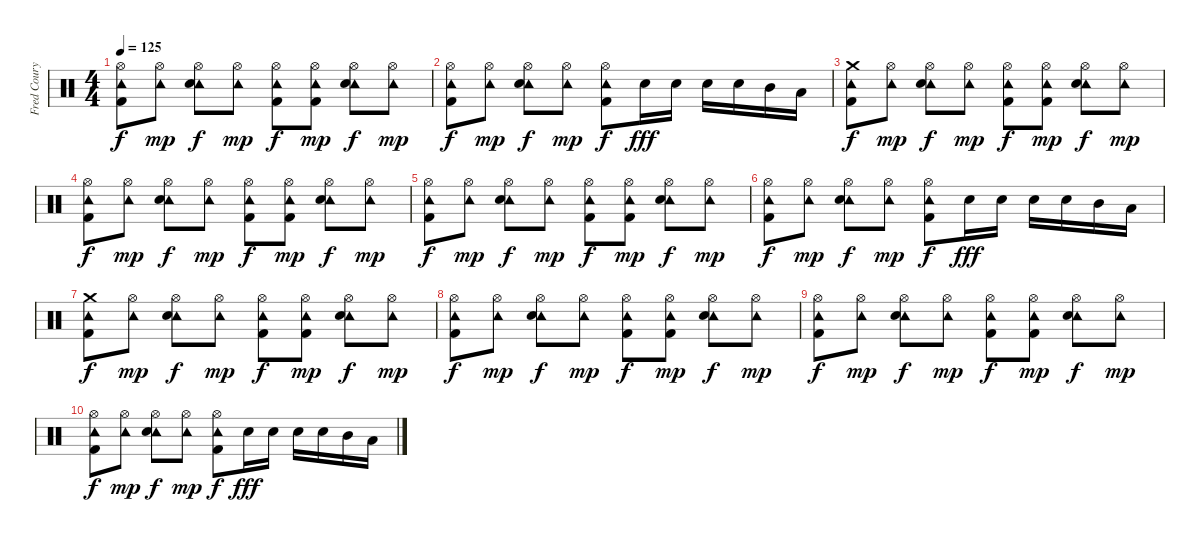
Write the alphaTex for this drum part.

\track ("Fred Coury - Drums" "Fred Coury") {instrument percussion}
\staff {score}
\articulation defaults
\ts (4 4)
\tempo 125
\clef neutral
\ks c
("Hi-Hat (open)" "Tambourine (hit)" "Kick (hit) 2").8{dy f} ("Hi-Hat (open)" "Tambourine (hit)").8{dy mp} ("Hi-Hat (open)" "Tambourine (hit)" "Snare (hit) 2").8{dy f} ("Hi-Hat (open)" "Tambourine (hit)").8{dy mp} ("Hi-Hat (open)" "Tambourine (hit)" "Kick (hit) 2").8{dy f} ("Hi-Hat (open)" "Tambourine (hit)" "Kick (hit) 2").8{dy mp} ("Hi-Hat (open)" "Tambourine (hit)" "Snare (hit) 2").8{dy f} ("Hi-Hat (open)" "Tambourine (hit)").8{dy mp} |
("Hi-Hat (open)" "Tambourine (hit)" "Kick (hit) 2").8{dy f} ("Hi-Hat (open)" "Tambourine (hit)").8{dy mp} ("Hi-Hat (open)" "Tambourine (hit)" "Snare (hit) 2").8{dy f} ("Hi-Hat (open)" "Tambourine (hit)").8{dy mp} ("Hi-Hat (open)" "Tambourine (hit)" "Kick (hit) 2").8{dy f} "Snare (hit) 2".16{dy fff} "Snare (hit) 2".16 "Snare (hit) 2".16 "Snare (hit) 2".16 "Mid Tom (hit)".16 "Low Tom (hit)".16 |
("Crash medium (hit)" "Tambourine (hit)" "Kick (hit) 2").8{dy f} ("Hi-Hat (open)" "Tambourine (hit)").8{dy mp} ("Hi-Hat (open)" "Tambourine (hit)" "Snare (hit) 2").8{dy f} ("Hi-Hat (open)" "Tambourine (hit)").8{dy mp} ("Hi-Hat (open)" "Tambourine (hit)" "Kick (hit) 2").8{dy f} ("Hi-Hat (open)" "Tambourine (hit)" "Kick (hit) 2").8{dy mp} ("Hi-Hat (open)" "Tambourine (hit)" "Snare (hit) 2").8{dy f} ("Hi-Hat (open)" "Tambourine (hit)").8{dy mp} |
("Hi-Hat (open)" "Tambourine (hit)" "Kick (hit) 2").8{dy f} ("Hi-Hat (open)" "Tambourine (hit)").8{dy mp} ("Hi-Hat (open)" "Tambourine (hit)" "Snare (hit) 2").8{dy f} ("Hi-Hat (open)" "Tambourine (hit)").8{dy mp} ("Hi-Hat (open)" "Tambourine (hit)" "Kick (hit) 2").8{dy f} ("Hi-Hat (open)" "Tambourine (hit)" "Kick (hit) 2").8{dy mp} ("Hi-Hat (open)" "Tambourine (hit)" "Snare (hit) 2").8{dy f} ("Hi-Hat (open)" "Tambourine (hit)").8{dy mp} |
("Hi-Hat (open)" "Tambourine (hit)" "Kick (hit) 2").8{dy f} ("Hi-Hat (open)" "Tambourine (hit)").8{dy mp} ("Hi-Hat (open)" "Tambourine (hit)" "Snare (hit) 2").8{dy f} ("Hi-Hat (open)" "Tambourine (hit)").8{dy mp} ("Hi-Hat (open)" "Tambourine (hit)" "Kick (hit) 2").8{dy f} ("Hi-Hat (open)" "Tambourine (hit)" "Kick (hit) 2").8{dy mp} ("Hi-Hat (open)" "Tambourine (hit)" "Snare (hit) 2").8{dy f} ("Hi-Hat (open)" "Tambourine (hit)").8{dy mp} |
("Hi-Hat (open)" "Tambourine (hit)" "Kick (hit) 2").8{dy f} ("Hi-Hat (open)" "Tambourine (hit)").8{dy mp} ("Hi-Hat (open)" "Tambourine (hit)" "Snare (hit) 2").8{dy f} ("Hi-Hat (open)" "Tambourine (hit)").8{dy mp} ("Hi-Hat (open)" "Tambourine (hit)" "Kick (hit) 2").8{dy f} "Snare (hit) 2".16{dy fff} "Snare (hit) 2".16 "Snare (hit) 2".16 "Snare (hit) 2".16 "Mid Tom (hit)".16 "Low Tom (hit)".16 |
("Crash medium (hit)" "Tambourine (hit)" "Kick (hit) 2").8{dy f} ("Hi-Hat (open)" "Tambourine (hit)").8{dy mp} ("Hi-Hat (open)" "Tambourine (hit)" "Snare (hit) 2").8{dy f} ("Hi-Hat (open)" "Tambourine (hit)").8{dy mp} ("Hi-Hat (open)" "Tambourine (hit)" "Kick (hit) 2").8{dy f} ("Hi-Hat (open)" "Tambourine (hit)" "Kick (hit) 2").8{dy mp} ("Hi-Hat (open)" "Tambourine (hit)" "Snare (hit) 2").8{dy f} ("Hi-Hat (open)" "Tambourine (hit)").8{dy mp} |
("Hi-Hat (open)" "Tambourine (hit)" "Kick (hit) 2").8{dy f} ("Hi-Hat (open)" "Tambourine (hit)").8{dy mp} ("Hi-Hat (open)" "Tambourine (hit)" "Snare (hit) 2").8{dy f} ("Hi-Hat (open)" "Tambourine (hit)").8{dy mp} ("Hi-Hat (open)" "Tambourine (hit)" "Kick (hit) 2").8{dy f} ("Hi-Hat (open)" "Tambourine (hit)" "Kick (hit) 2").8{dy mp} ("Hi-Hat (open)" "Tambourine (hit)" "Snare (hit) 2").8{dy f} ("Hi-Hat (open)" "Tambourine (hit)").8{dy mp} |
("Hi-Hat (open)" "Tambourine (hit)" "Kick (hit) 2").8{dy f} ("Hi-Hat (open)" "Tambourine (hit)").8{dy mp} ("Hi-Hat (open)" "Tambourine (hit)" "Snare (hit) 2").8{dy f} ("Hi-Hat (open)" "Tambourine (hit)").8{dy mp} ("Hi-Hat (open)" "Tambourine (hit)" "Kick (hit) 2").8{dy f} ("Hi-Hat (open)" "Tambourine (hit)" "Kick (hit) 2").8{dy mp} ("Hi-Hat (open)" "Tambourine (hit)" "Snare (hit) 2").8{dy f} ("Hi-Hat (open)" "Tambourine (hit)").8{dy mp} |
("Hi-Hat (open)" "Tambourine (hit)" "Kick (hit) 2").8{dy f} ("Hi-Hat (open)" "Tambourine (hit)").8{dy mp} ("Hi-Hat (open)" "Tambourine (hit)" "Snare (hit) 2").8{dy f} ("Hi-Hat (open)" "Tambourine (hit)").8{dy mp} ("Hi-Hat (open)" "Tambourine (hit)" "Kick (hit) 2").8{dy f} "Snare (hit) 2".16{dy fff} "Snare (hit) 2".16 "Snare (hit) 2".16 "Snare (hit) 2".16 "Mid Tom (hit)".16 "Low Tom (hit)".16
